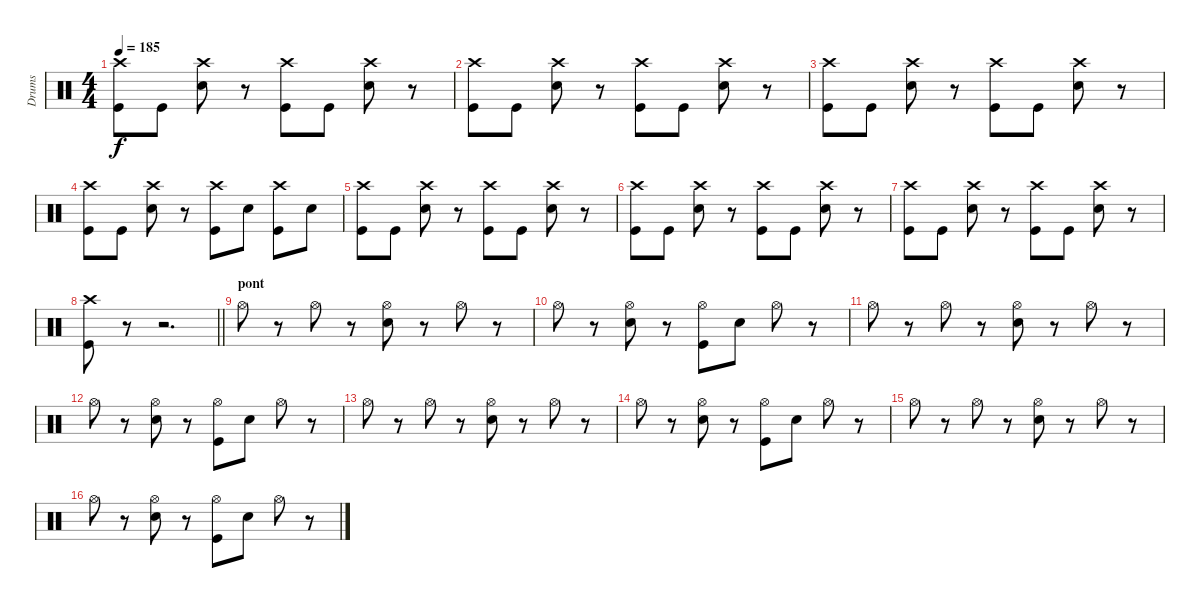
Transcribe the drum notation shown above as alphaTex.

\track ("Drums" "Drums") {instrument percussion}
\staff {score}
\articulation defaults
\ts (4 4)
\tempo 185
\clef neutral
\ks c
("Crash high (hit)" "Kick (hit)").8{dy f} "Kick (hit)".8 ("Crash high (hit)" "Electric Snare (hit)").8 r.8 ("Crash high (hit)" "Kick (hit)").8 "Kick (hit)".8 ("Crash high (hit)" "Electric Snare (hit)").8 r.8 |
("Crash high (hit)" "Kick (hit)").8 "Kick (hit)".8 ("Crash high (hit)" "Electric Snare (hit)").8 r.8 ("Crash high (hit)" "Kick (hit)").8 "Kick (hit)".8 ("Crash high (hit)" "Electric Snare (hit)").8 r.8 |
("Crash high (hit)" "Kick (hit)").8 "Kick (hit)".8 ("Crash high (hit)" "Electric Snare (hit)").8 r.8 ("Crash high (hit)" "Kick (hit)").8 "Kick (hit)".8 ("Crash high (hit)" "Electric Snare (hit)").8 r.8 |
("Crash high (hit)" "Kick (hit)").8 "Kick (hit)".8 ("Crash high (hit)" "Electric Snare (hit)").8 r.8 ("Crash high (hit)" "Kick (hit)").8 "Electric Snare (hit)".8 ("Crash high (hit)" "Kick (hit)").8 "Electric Snare (hit)".8 |
("Crash high (hit)" "Kick (hit)").8 "Kick (hit)".8 ("Crash high (hit)" "Electric Snare (hit)").8 r.8 ("Crash high (hit)" "Kick (hit)").8 "Kick (hit)".8 ("Crash high (hit)" "Electric Snare (hit)").8 r.8 |
("Crash high (hit)" "Kick (hit)").8 "Kick (hit)".8 ("Crash high (hit)" "Electric Snare (hit)").8 r.8 ("Crash high (hit)" "Kick (hit)").8 "Kick (hit)".8 ("Crash high (hit)" "Electric Snare (hit)").8 r.8 |
("Crash high (hit)" "Kick (hit)").8 "Kick (hit)".8 ("Crash high (hit)" "Electric Snare (hit)").8 r.8 ("Crash high (hit)" "Kick (hit)").8 "Kick (hit)".8 ("Crash high (hit)" "Electric Snare (hit)").8 r.8 |
\barLineRight lightlight
("Crash high (hit)" "Kick (hit)").8 r.8 r.2{d} |
\section ("" "pont")
"Hi-Hat (open)".8 r.8 "Hi-Hat (open)".8 r.8 ("Hi-Hat (open)" "Electric Snare (hit)").8 r.8 "Hi-Hat (open)".8 r.8 |
"Hi-Hat (open)".8 r.8 ("Hi-Hat (open)" "Electric Snare (hit)").8 r.8 ("Hi-Hat (open)" "Kick (hit)").8 "Electric Snare (hit)".8 "Hi-Hat (open)".8 r.8 |
"Hi-Hat (open)".8 r.8 "Hi-Hat (open)".8 r.8 ("Hi-Hat (open)" "Electric Snare (hit)").8 r.8 "Hi-Hat (open)".8 r.8 |
"Hi-Hat (open)".8 r.8 ("Hi-Hat (open)" "Electric Snare (hit)").8 r.8 ("Hi-Hat (open)" "Kick (hit)").8 "Electric Snare (hit)".8 "Hi-Hat (open)".8 r.8 |
"Hi-Hat (open)".8 r.8 "Hi-Hat (open)".8 r.8 ("Hi-Hat (open)" "Electric Snare (hit)").8 r.8 "Hi-Hat (open)".8 r.8 |
"Hi-Hat (open)".8 r.8 ("Hi-Hat (open)" "Electric Snare (hit)").8 r.8 ("Hi-Hat (open)" "Kick (hit)").8 "Electric Snare (hit)".8 "Hi-Hat (open)".8 r.8 |
"Hi-Hat (open)".8 r.8 "Hi-Hat (open)".8 r.8 ("Hi-Hat (open)" "Electric Snare (hit)").8 r.8 "Hi-Hat (open)".8 r.8 |
"Hi-Hat (open)".8 r.8 ("Hi-Hat (open)" "Electric Snare (hit)").8 r.8 ("Hi-Hat (open)" "Kick (hit)").8 "Electric Snare (hit)".8 "Hi-Hat (open)".8 r.8
